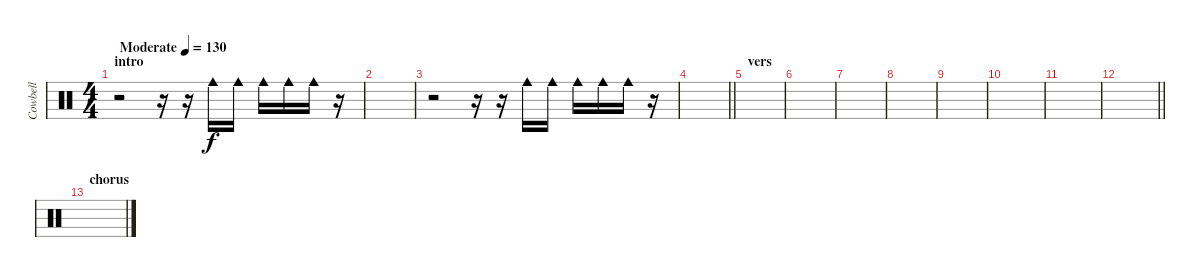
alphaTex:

\track ("Cowbell" "Cowbell") {instrument percussion}
\staff {score}
\articulation defaults
\ts (4 4)
\section ("" "intro")
\tempo (130 "Moderate")
\clef neutral
\ks c
r.2{dy f} r.16 r.16 "Cowbell medium (hit)".16 "Cowbell medium (hit)".16 "Cowbell medium (hit)".16 "Cowbell medium (hit)".16 "Cowbell medium (hit)".16 r.16 |
|
r.2 r.16 r.16 "Cowbell medium (hit)".16 "Cowbell medium (hit)".16 "Cowbell medium (hit)".16 "Cowbell medium (hit)".16 "Cowbell medium (hit)".16 r.16 |
\barLineRight lightlight
|
\section ("" "vers")
|
|
|
|
|
|
|
\barLineRight lightlight
|
\section ("" "chorus")
